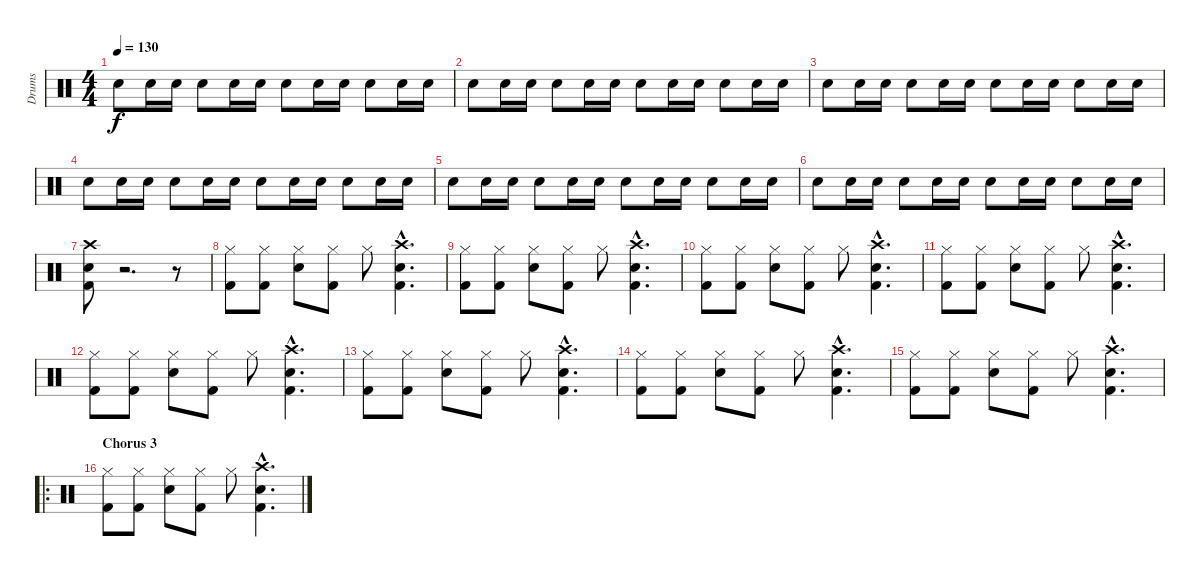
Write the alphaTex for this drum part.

\track ("Drums" "Drums") {instrument percussion}
\staff {score}
\articulation defaults
\ts (4 4)
\tempo 130
\clef neutral
\ks c "Electric Snare (hit)".8{dy f} "Electric Snare (hit)".16 "Electric Snare (hit)".16 "Electric Snare (hit)".8 "Electric Snare (hit)".16 "Electric Snare (hit)".16 "Electric Snare (hit)".8 "Electric Snare (hit)".16 "Electric Snare (hit)".16 "Electric Snare (hit)".8 "Electric Snare (hit)".16 "Electric Snare (hit)".16
|
"Electric Snare (hit)".8 "Electric Snare (hit)".16 "Electric Snare (hit)".16 "Electric Snare (hit)".8 "Electric Snare (hit)".16 "Electric Snare (hit)".16 "Electric Snare (hit)".8 "Electric Snare (hit)".16 "Electric Snare (hit)".16 "Electric Snare (hit)".8 "Electric Snare (hit)".16 "Electric Snare (hit)".16 |
"Electric Snare (hit)".8 "Electric Snare (hit)".16 "Electric Snare (hit)".16 "Electric Snare (hit)".8 "Electric Snare (hit)".16 "Electric Snare (hit)".16 "Electric Snare (hit)".8 "Electric Snare (hit)".16 "Electric Snare (hit)".16 "Electric Snare (hit)".8 "Electric Snare (hit)".16 "Electric Snare (hit)".16 |
"Electric Snare (hit)".8 "Electric Snare (hit)".16 "Electric Snare (hit)".16 "Electric Snare (hit)".8 "Electric Snare (hit)".16 "Electric Snare (hit)".16 "Electric Snare (hit)".8 "Electric Snare (hit)".16 "Electric Snare (hit)".16 "Electric Snare (hit)".8 "Electric Snare (hit)".16 "Electric Snare (hit)".16 |
"Electric Snare (hit)".8 "Electric Snare (hit)".16 "Electric Snare (hit)".16 "Electric Snare (hit)".8 "Electric Snare (hit)".16 "Electric Snare (hit)".16 "Electric Snare (hit)".8 "Electric Snare (hit)".16 "Electric Snare (hit)".16 "Electric Snare (hit)".8 "Electric Snare (hit)".16 "Electric Snare (hit)".16 |
"Electric Snare (hit)".8 "Electric Snare (hit)".16 "Electric Snare (hit)".16 "Electric Snare (hit)".8 "Electric Snare (hit)".16 "Electric Snare (hit)".16 "Electric Snare (hit)".8 "Electric Snare (hit)".16 "Electric Snare (hit)".16 "Electric Snare (hit)".8 "Electric Snare (hit)".16 "Electric Snare (hit)".16 |
("Kick (hit) 2" "Electric Snare (hit)" "Crash high (hit)").8{volume 13} r.2{d} r.8 |
("Kick (hit) 2" "Hi-Hat (closed)").8 ("Kick (hit) 2" "Hi-Hat (closed)").8 ("Electric Snare (hit)" "Hi-Hat (closed)").8 ("Kick (hit) 2" "Hi-Hat (closed)").8 "Hi-Hat (closed)".8 ("Kick (hit) 2"{hac} "Electric Snare (hit)"{hac} "Crash high (hit)"{hac}).4{d} |
("Kick (hit) 2" "Hi-Hat (closed)").8 ("Kick (hit) 2" "Hi-Hat (closed)").8 ("Electric Snare (hit)" "Hi-Hat (closed)").8 ("Kick (hit) 2" "Hi-Hat (closed)").8 "Hi-Hat (closed)".8 ("Kick (hit) 2"{hac} "Electric Snare (hit)"{hac} "Crash high (hit)"{hac}).4{d} |
("Kick (hit) 2" "Hi-Hat (closed)").8 ("Kick (hit) 2" "Hi-Hat (closed)").8 ("Electric Snare (hit)" "Hi-Hat (closed)").8 ("Kick (hit) 2" "Hi-Hat (closed)").8 "Hi-Hat (closed)".8 ("Kick (hit) 2"{hac} "Electric Snare (hit)"{hac} "Crash high (hit)"{hac}).4{d} |
("Kick (hit) 2" "Hi-Hat (closed)").8 ("Kick (hit) 2" "Hi-Hat (closed)").8 ("Electric Snare (hit)" "Hi-Hat (closed)").8 ("Kick (hit) 2" "Hi-Hat (closed)").8 "Hi-Hat (closed)".8 ("Kick (hit) 2"{hac} "Electric Snare (hit)"{hac} "Crash high (hit)"{hac}).4{d} |
("Kick (hit) 2" "Hi-Hat (closed)").8 ("Kick (hit) 2" "Hi-Hat (closed)").8 ("Electric Snare (hit)" "Hi-Hat (closed)").8 ("Kick (hit) 2" "Hi-Hat (closed)").8 "Hi-Hat (closed)".8 ("Kick (hit) 2"{hac} "Electric Snare (hit)"{hac} "Crash high (hit)"{hac}).4{d} |
("Kick (hit) 2" "Hi-Hat (closed)").8 ("Kick (hit) 2" "Hi-Hat (closed)").8 ("Electric Snare (hit)" "Hi-Hat (closed)").8 ("Kick (hit) 2" "Hi-Hat (closed)").8 "Hi-Hat (closed)".8 ("Kick (hit) 2"{hac} "Electric Snare (hit)"{hac} "Crash high (hit)"{hac}).4{d} |
("Kick (hit) 2" "Hi-Hat (closed)").8 ("Kick (hit) 2" "Hi-Hat (closed)").8 ("Electric Snare (hit)" "Hi-Hat (closed)").8 ("Kick (hit) 2" "Hi-Hat (closed)").8 "Hi-Hat (closed)".8 ("Kick (hit) 2"{hac} "Electric Snare (hit)"{hac} "Crash high (hit)"{hac}).4{d} |
("Kick (hit) 2" "Hi-Hat (closed)").8 ("Kick (hit) 2" "Hi-Hat (closed)").8 ("Electric Snare (hit)" "Hi-Hat (closed)").8 ("Kick (hit) 2" "Hi-Hat (closed)").8 "Hi-Hat (closed)".8 ("Kick (hit) 2"{hac} "Electric Snare (hit)"{hac} "Crash high (hit)"{hac}).4{d} |
\ro
\section ("" "Chorus 3")
("Kick (hit) 2" "Hi-Hat (closed)").8 ("Kick (hit) 2" "Hi-Hat (closed)").8 ("Electric Snare (hit)" "Hi-Hat (closed)").8 ("Kick (hit) 2" "Hi-Hat (closed)").8 "Hi-Hat (closed)".8 ("Kick (hit) 2"{hac} "Electric Snare (hit)"{hac} "Crash high (hit)"{hac}).4{d}
